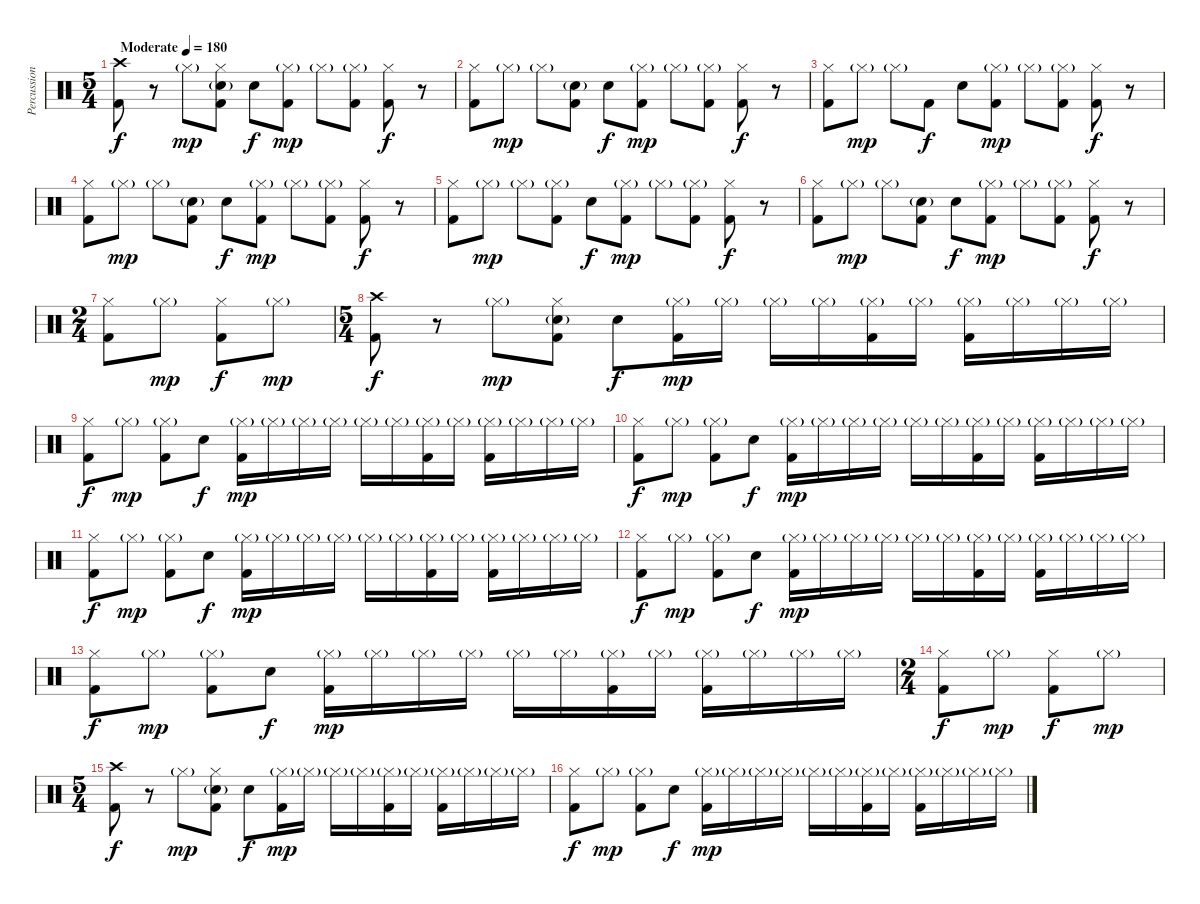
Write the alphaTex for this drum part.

\track ("Percussion" "Percussion") {instrument percussion}
\staff {score}
\articulation defaults
\ts (5 4)
\tempo (180 "Moderate")
\clef neutral
\ks c
("Crash high (hit)" "Kick (hit) 2").8{dy f} r.8 "Hi-Hat (closed)"{g}.8{dy mp} ("Hi-Hat (closed)" "Snare (hit) 2"{g} "Kick (hit) 2").8 "Snare (hit) 2".8{dy f} ("Hi-Hat (closed)"{g} "Kick (hit) 2").8{dy mp} "Hi-Hat (closed)"{g}.8 ("Hi-Hat (closed)"{g} "Kick (hit) 2").8 ("Hi-Hat (closed)" "Kick (hit) 2").8{dy f} r.8 |
("Hi-Hat (closed)" "Kick (hit) 2").8 "Hi-Hat (closed)"{g}.8{dy mp} "Hi-Hat (closed)"{g}.8 ("Snare (hit) 2"{g} "Kick (hit) 2").8 "Snare (hit) 2".8{dy f} ("Hi-Hat (closed)"{g} "Kick (hit) 2").8{dy mp} "Hi-Hat (closed)"{g}.8 ("Hi-Hat (closed)"{g} "Kick (hit) 2").8 ("Hi-Hat (closed)" "Kick (hit) 2").8{dy f} r.8 |
("Hi-Hat (closed)" "Kick (hit) 2").8 "Hi-Hat (closed)"{g}.8{dy mp} "Hi-Hat (closed)"{g}.8 "Kick (hit) 2".8{dy f} "Snare (hit) 2".8 ("Hi-Hat (closed)"{g} "Kick (hit) 2").8{dy mp} "Hi-Hat (closed)"{g}.8 ("Hi-Hat (closed)"{g} "Kick (hit) 2").8 ("Hi-Hat (closed)" "Kick (hit) 2").8{dy f} r.8 |
("Hi-Hat (closed)" "Kick (hit) 2").8 "Hi-Hat (closed)"{g}.8{dy mp} "Hi-Hat (closed)"{g}.8 ("Snare (hit) 2"{g} "Kick (hit) 2").8 "Snare (hit) 2".8{dy f} ("Hi-Hat (closed)"{g} "Kick (hit) 2").8{dy mp} "Hi-Hat (closed)"{g}.8 ("Hi-Hat (closed)"{g} "Kick (hit) 2").8 ("Hi-Hat (closed)" "Kick (hit) 2").8{dy f} r.8 |
("Hi-Hat (closed)" "Kick (hit) 2").8 "Hi-Hat (closed)"{g}.8{dy mp} "Hi-Hat (closed)"{g}.8 ("Hi-Hat (closed)"{g} "Kick (hit) 2").8 "Snare (hit) 2".8{dy f} ("Hi-Hat (closed)"{g} "Kick (hit) 2").8{dy mp} "Hi-Hat (closed)"{g}.8 ("Hi-Hat (closed)"{g} "Kick (hit) 2").8 ("Hi-Hat (closed)" "Kick (hit) 2").8{dy f} r.8 |
("Hi-Hat (closed)" "Kick (hit) 2").8 "Hi-Hat (closed)"{g}.8{dy mp} "Hi-Hat (closed)"{g}.8 ("Snare (hit) 2"{g} "Kick (hit) 2").8 "Snare (hit) 2".8{dy f} ("Hi-Hat (closed)"{g} "Kick (hit) 2").8{dy mp} "Hi-Hat (closed)"{g}.8 ("Hi-Hat (closed)"{g} "Kick (hit) 2").8 ("Hi-Hat (closed)" "Kick (hit) 2").8{dy f} r.8 |
\ts (2 4)
("Hi-Hat (closed)" "Kick (hit) 2").8 "Hi-Hat (closed)"{g}.8{dy mp} ("Hi-Hat (closed)" "Kick (hit) 2").8{dy f} "Hi-Hat (closed)"{g}.8{dy mp} |
\ts (5 4)
("Crash high (hit)" "Kick (hit) 2").8{dy f} r.8 "Hi-Hat (closed)"{g}.8{dy mp} ("Hi-Hat (closed)" "Snare (hit) 2"{g} "Kick (hit) 2").8 "Snare (hit) 2".8{dy f} ("Hi-Hat (closed)"{g} "Kick (hit) 2").16{dy mp} "Hi-Hat (closed)"{g}.16 "Hi-Hat (closed)"{g}.16 "Hi-Hat (closed)"{g}.16 ("Hi-Hat (closed)"{g} "Kick (hit) 2").16 "Hi-Hat (closed)"{g}.16 ("Hi-Hat (closed)"{g} "Kick (hit) 2").16 "Hi-Hat (closed)"{g}.16 "Hi-Hat (closed)"{g}.16 "Hi-Hat (closed)"{g}.16 |
("Hi-Hat (closed)" "Kick (hit) 2").8{dy f} "Hi-Hat (closed)"{g}.8{dy mp} ("Hi-Hat (closed)"{g} "Kick (hit) 2").8 "Snare (hit) 2".8{dy f} ("Hi-Hat (closed)"{g} "Kick (hit) 2").16{dy mp} "Hi-Hat (closed)"{g}.16 "Hi-Hat (closed)"{g}.16 "Hi-Hat (closed)"{g}.16 "Hi-Hat (closed)"{g}.16 "Hi-Hat (closed)"{g}.16 ("Hi-Hat (closed)"{g} "Kick (hit) 2").16 "Hi-Hat (closed)"{g}.16 ("Hi-Hat (closed)"{g} "Kick (hit) 2").16 "Hi-Hat (closed)"{g}.16 "Hi-Hat (closed)"{g}.16 "Hi-Hat (closed)"{g}.16 |
("Hi-Hat (closed)" "Kick (hit) 2").8{dy f} "Hi-Hat (closed)"{g}.8{dy mp} ("Hi-Hat (closed)"{g} "Kick (hit) 2").8 "Snare (hit) 2".8{dy f} ("Hi-Hat (closed)"{g} "Kick (hit) 2").16{dy mp} "Hi-Hat (closed)"{g}.16 "Hi-Hat (closed)"{g}.16 "Hi-Hat (closed)"{g}.16 "Hi-Hat (closed)"{g}.16 "Hi-Hat (closed)"{g}.16 ("Hi-Hat (closed)"{g} "Kick (hit) 2").16 "Hi-Hat (closed)"{g}.16 ("Hi-Hat (closed)"{g} "Kick (hit) 2").16 "Hi-Hat (closed)"{g}.16 "Hi-Hat (closed)"{g}.16 "Hi-Hat (closed)"{g}.16 |
("Hi-Hat (closed)" "Kick (hit) 2").8{dy f} "Hi-Hat (closed)"{g}.8{dy mp} ("Hi-Hat (closed)"{g} "Kick (hit) 2").8 "Snare (hit) 2".8{dy f} ("Hi-Hat (closed)"{g} "Kick (hit) 2").16{dy mp} "Hi-Hat (closed)"{g}.16 "Hi-Hat (closed)"{g}.16 "Hi-Hat (closed)"{g}.16 "Hi-Hat (closed)"{g}.16 "Hi-Hat (closed)"{g}.16 ("Hi-Hat (closed)"{g} "Kick (hit) 2").16 "Hi-Hat (closed)"{g}.16 ("Hi-Hat (closed)"{g} "Kick (hit) 2").16 "Hi-Hat (closed)"{g}.16 "Hi-Hat (closed)"{g}.16 "Hi-Hat (closed)"{g}.16 |
("Hi-Hat (closed)" "Kick (hit) 2").8{dy f} "Hi-Hat (closed)"{g}.8{dy mp} ("Hi-Hat (closed)"{g} "Kick (hit) 2").8 "Snare (hit) 2".8{dy f} ("Hi-Hat (closed)"{g} "Kick (hit) 2").16{dy mp} "Hi-Hat (closed)"{g}.16 "Hi-Hat (closed)"{g}.16 "Hi-Hat (closed)"{g}.16 "Hi-Hat (closed)"{g}.16 "Hi-Hat (closed)"{g}.16 ("Hi-Hat (closed)"{g} "Kick (hit) 2").16 "Hi-Hat (closed)"{g}.16 ("Hi-Hat (closed)"{g} "Kick (hit) 2").16 "Hi-Hat (closed)"{g}.16 "Hi-Hat (closed)"{g}.16 "Hi-Hat (closed)"{g}.16 |
("Hi-Hat (closed)" "Kick (hit) 2").8{dy f} "Hi-Hat (closed)"{g}.8{dy mp} ("Hi-Hat (closed)"{g} "Kick (hit) 2").8 "Snare (hit) 2".8{dy f} ("Hi-Hat (closed)"{g} "Kick (hit) 2").16{dy mp} "Hi-Hat (closed)"{g}.16 "Hi-Hat (closed)"{g}.16 "Hi-Hat (closed)"{g}.16 "Hi-Hat (closed)"{g}.16 "Hi-Hat (closed)"{g}.16 ("Hi-Hat (closed)"{g} "Kick (hit) 2").16 "Hi-Hat (closed)"{g}.16 ("Hi-Hat (closed)"{g} "Kick (hit) 2").16 "Hi-Hat (closed)"{g}.16 "Hi-Hat (closed)"{g}.16 "Hi-Hat (closed)"{g}.16 |
\ts (2 4)
("Hi-Hat (closed)" "Kick (hit) 2").8{dy f} "Hi-Hat (closed)"{g}.8{dy mp} ("Hi-Hat (closed)" "Kick (hit) 2").8{dy f} "Hi-Hat (closed)"{g}.8{dy mp} |
\ts (5 4)
("Crash high (hit)" "Kick (hit) 2").8{dy f} r.8 "Hi-Hat (closed)"{g}.8{dy mp} ("Hi-Hat (closed)" "Snare (hit) 2"{g} "Kick (hit) 2").8 "Snare (hit) 2".8{dy f} ("Hi-Hat (closed)"{g} "Kick (hit) 2").16{dy mp} "Hi-Hat (closed)"{g}.16 "Hi-Hat (closed)"{g}.16 "Hi-Hat (closed)"{g}.16 ("Hi-Hat (closed)"{g} "Kick (hit) 2").16 "Hi-Hat (closed)"{g}.16 ("Hi-Hat (closed)"{g} "Kick (hit) 2").16 "Hi-Hat (closed)"{g}.16 "Hi-Hat (closed)"{g}.16 "Hi-Hat (closed)"{g}.16 |
("Hi-Hat (closed)" "Kick (hit) 2").8{dy f} "Hi-Hat (closed)"{g}.8{dy mp} ("Hi-Hat (closed)"{g} "Kick (hit) 2").8 "Snare (hit) 2".8{dy f} ("Hi-Hat (closed)"{g} "Kick (hit) 2").16{dy mp} "Hi-Hat (closed)"{g}.16 "Hi-Hat (closed)"{g}.16 "Hi-Hat (closed)"{g}.16 "Hi-Hat (closed)"{g}.16 "Hi-Hat (closed)"{g}.16 ("Hi-Hat (closed)"{g} "Kick (hit) 2").16 "Hi-Hat (closed)"{g}.16 ("Hi-Hat (closed)"{g} "Kick (hit) 2").16 "Hi-Hat (closed)"{g}.16 "Hi-Hat (closed)"{g}.16 "Hi-Hat (closed)"{g}.16
